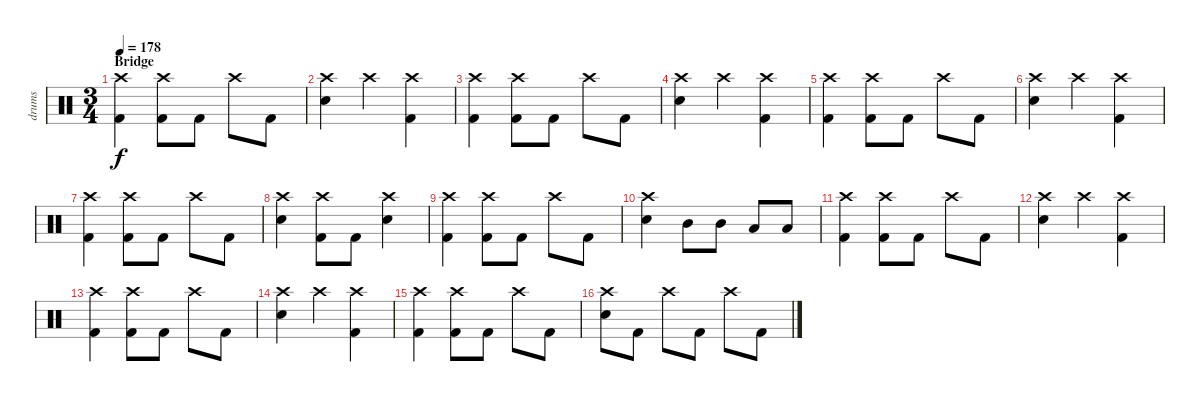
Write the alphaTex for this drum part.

\track ("drums" "drums") {instrument percussion}
\staff {score}
\articulation defaults
\ts (3 4)
\section ("" "Bridge")
\tempo 178
\clef neutral
\ks c
("Crash high (hit)" "Kick (hit) 2").4{dy f} ("Crash high (hit)" "Kick (hit) 2").8 "Kick (hit) 2".8 "Crash high (hit)".8 "Kick (hit) 2".8 |
("Crash high (hit)" "Electric Snare (hit)").4 "Crash high (hit)".4 ("Crash high (hit)" "Kick (hit) 2").4 |
("Crash high (hit)" "Kick (hit) 2").4 ("Crash high (hit)" "Kick (hit) 2").8 "Kick (hit) 2".8 "Crash high (hit)".8 "Kick (hit) 2".8 |
("Crash high (hit)" "Electric Snare (hit)").4 "Crash high (hit)".4 ("Crash high (hit)" "Kick (hit) 2").4 |
("Crash high (hit)" "Kick (hit) 2").4 ("Crash high (hit)" "Kick (hit) 2").8 "Kick (hit) 2".8 "Crash high (hit)".8 "Kick (hit) 2".8 |
("Crash high (hit)" "Electric Snare (hit)").4 "Crash high (hit)".4 ("Crash high (hit)" "Kick (hit) 2").4 |
("Crash high (hit)" "Kick (hit) 2").4 ("Crash high (hit)" "Kick (hit) 2").8 "Kick (hit) 2".8 "Crash high (hit)".8 "Kick (hit) 2".8 |
("Crash high (hit)" "Electric Snare (hit)").4 ("Crash high (hit)" "Kick (hit) 2").8 "Kick (hit) 2".8 ("Crash high (hit)" "Electric Snare (hit)").4 |
("Crash high (hit)" "Kick (hit) 2").4 ("Crash high (hit)" "Kick (hit) 2").8 "Kick (hit) 2".8 "Crash high (hit)".8 "Kick (hit) 2".8 |
("Crash high (hit)" "Electric Snare (hit)").4 "Mid Tom (hit)".8 "Mid Tom (hit)".8 "Low Tom (hit)".8 "Low Tom (hit)".8 |
("Crash high (hit)" "Kick (hit) 2").4 ("Crash high (hit)" "Kick (hit) 2").8 "Kick (hit) 2".8 "Crash high (hit)".8 "Kick (hit) 2".8 |
("Crash high (hit)" "Electric Snare (hit)").4 "Crash high (hit)".4 ("Crash high (hit)" "Kick (hit) 2").4 |
("Crash high (hit)" "Kick (hit) 2").4 ("Crash high (hit)" "Kick (hit) 2").8 "Kick (hit) 2".8 "Crash high (hit)".8 "Kick (hit) 2".8 |
("Crash high (hit)" "Electric Snare (hit)").4 "Crash high (hit)".4 ("Crash high (hit)" "Kick (hit) 2").4 |
("Crash high (hit)" "Kick (hit) 2").4 ("Crash high (hit)" "Kick (hit) 2").8 "Kick (hit) 2".8 "Crash high (hit)".8 "Kick (hit) 2".8 |
("Crash high (hit)" "Electric Snare (hit)").8 "Kick (hit) 2".8 "Crash high (hit)".8 "Kick (hit) 2".8 "Crash high (hit)".8 "Kick (hit) 2".8
